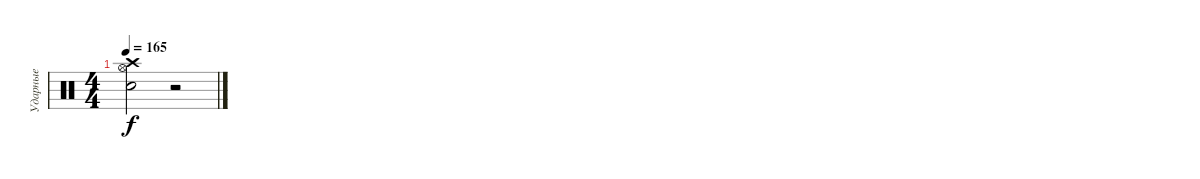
\track ("Ударные" "Ударные") {instrument percussion}
\staff {score}
\articulation defaults
\ts (4 4)
\tempo 165
\clef neutral
\ks c
("Crash high (hit)" "Hi-Hat (open)" "Snare (hit) 2").2{dy f} r.2
